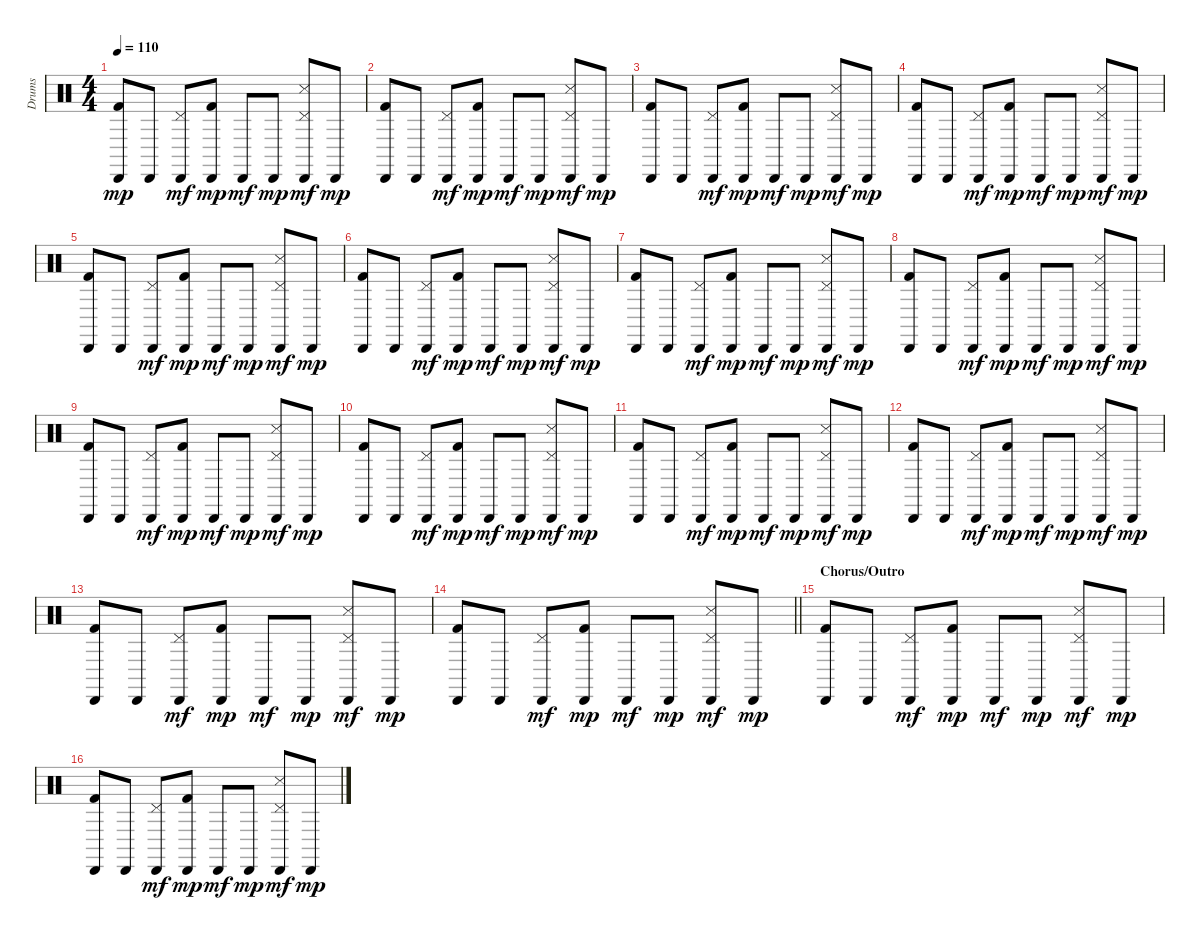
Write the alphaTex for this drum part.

\track ("Drums" "Drums") {instrument percussion}
\staff {score}
\articulation defaults
\ts (4 4)
\tempo 110
\clef neutral
\ks c
("Cabasa (hit)" "Kick (hit) 2").8{dy mp} "Cabasa (hit)".8 ("Cabasa (hit)" "Pedal Hi-Hat (hit)").8{dy mf} ("Cabasa (hit)" "Kick (hit) 2").8{dy mp} "Cabasa (hit)".8{dy mf} "Cabasa (hit)".8{dy mp} ("Cabasa (hit)" "Pedal Hi-Hat (hit)" "Snare (side stick) 3").8{dy mf} "Cabasa (hit)".8{dy mp} |
("Cabasa (hit)" "Kick (hit) 2").8 "Cabasa (hit)".8 ("Cabasa (hit)" "Pedal Hi-Hat (hit)").8{dy mf} ("Cabasa (hit)" "Kick (hit) 2").8{dy mp} "Cabasa (hit)".8{dy mf} "Cabasa (hit)".8{dy mp} ("Cabasa (hit)" "Pedal Hi-Hat (hit)" "Snare (side stick) 3").8{dy mf} "Cabasa (hit)".8{dy mp} |
("Cabasa (hit)" "Kick (hit) 2").8 "Cabasa (hit)".8 ("Cabasa (hit)" "Pedal Hi-Hat (hit)").8{dy mf} ("Cabasa (hit)" "Kick (hit) 2").8{dy mp} "Cabasa (hit)".8{dy mf} "Cabasa (hit)".8{dy mp} ("Cabasa (hit)" "Pedal Hi-Hat (hit)" "Snare (side stick) 3").8{dy mf} "Cabasa (hit)".8{dy mp} |
("Cabasa (hit)" "Kick (hit) 2").8 "Cabasa (hit)".8 ("Cabasa (hit)" "Pedal Hi-Hat (hit)").8{dy mf} ("Cabasa (hit)" "Kick (hit) 2").8{dy mp} "Cabasa (hit)".8{dy mf} "Cabasa (hit)".8{dy mp} ("Cabasa (hit)" "Pedal Hi-Hat (hit)" "Snare (side stick) 3").8{dy mf} "Cabasa (hit)".8{dy mp} |
("Cabasa (hit)" "Kick (hit) 2").8 "Cabasa (hit)".8 ("Cabasa (hit)" "Pedal Hi-Hat (hit)").8{dy mf} ("Cabasa (hit)" "Kick (hit) 2").8{dy mp} "Cabasa (hit)".8{dy mf} "Cabasa (hit)".8{dy mp} ("Cabasa (hit)" "Pedal Hi-Hat (hit)" "Snare (side stick) 3").8{dy mf} "Cabasa (hit)".8{dy mp} |
("Cabasa (hit)" "Kick (hit) 2").8 "Cabasa (hit)".8 ("Cabasa (hit)" "Pedal Hi-Hat (hit)").8{dy mf} ("Cabasa (hit)" "Kick (hit) 2").8{dy mp} "Cabasa (hit)".8{dy mf} "Cabasa (hit)".8{dy mp} ("Cabasa (hit)" "Pedal Hi-Hat (hit)" "Snare (side stick) 3").8{dy mf} "Cabasa (hit)".8{dy mp} |
("Cabasa (hit)" "Kick (hit) 2").8 "Cabasa (hit)".8 ("Cabasa (hit)" "Pedal Hi-Hat (hit)").8{dy mf} ("Cabasa (hit)" "Kick (hit) 2").8{dy mp} "Cabasa (hit)".8{dy mf} "Cabasa (hit)".8{dy mp} ("Cabasa (hit)" "Pedal Hi-Hat (hit)" "Snare (side stick) 3").8{dy mf} "Cabasa (hit)".8{dy mp} |
("Cabasa (hit)" "Kick (hit) 2").8 "Cabasa (hit)".8 ("Cabasa (hit)" "Pedal Hi-Hat (hit)").8{dy mf} ("Cabasa (hit)" "Kick (hit) 2").8{dy mp} "Cabasa (hit)".8{dy mf} "Cabasa (hit)".8{dy mp} ("Cabasa (hit)" "Pedal Hi-Hat (hit)" "Snare (side stick) 3").8{dy mf} "Cabasa (hit)".8{dy mp} |
("Cabasa (hit)" "Kick (hit) 2").8 "Cabasa (hit)".8 ("Cabasa (hit)" "Pedal Hi-Hat (hit)").8{dy mf} ("Cabasa (hit)" "Kick (hit) 2").8{dy mp} "Cabasa (hit)".8{dy mf} "Cabasa (hit)".8{dy mp} ("Cabasa (hit)" "Pedal Hi-Hat (hit)" "Snare (side stick) 3").8{dy mf} "Cabasa (hit)".8{dy mp} |
("Cabasa (hit)" "Kick (hit) 2").8 "Cabasa (hit)".8 ("Cabasa (hit)" "Pedal Hi-Hat (hit)").8{dy mf} ("Cabasa (hit)" "Kick (hit) 2").8{dy mp} "Cabasa (hit)".8{dy mf} "Cabasa (hit)".8{dy mp} ("Cabasa (hit)" "Pedal Hi-Hat (hit)" "Snare (side stick) 3").8{dy mf} "Cabasa (hit)".8{dy mp} |
("Cabasa (hit)" "Kick (hit) 2").8 "Cabasa (hit)".8 ("Cabasa (hit)" "Pedal Hi-Hat (hit)").8{dy mf} ("Cabasa (hit)" "Kick (hit) 2").8{dy mp} "Cabasa (hit)".8{dy mf} "Cabasa (hit)".8{dy mp} ("Cabasa (hit)" "Pedal Hi-Hat (hit)" "Snare (side stick) 3").8{dy mf} "Cabasa (hit)".8{dy mp} |
("Cabasa (hit)" "Kick (hit) 2").8 "Cabasa (hit)".8 ("Cabasa (hit)" "Pedal Hi-Hat (hit)").8{dy mf} ("Cabasa (hit)" "Kick (hit) 2").8{dy mp} "Cabasa (hit)".8{dy mf} "Cabasa (hit)".8{dy mp} ("Cabasa (hit)" "Pedal Hi-Hat (hit)" "Snare (side stick) 3").8{dy mf} "Cabasa (hit)".8{dy mp} |
("Cabasa (hit)" "Kick (hit) 2").8 "Cabasa (hit)".8 ("Cabasa (hit)" "Pedal Hi-Hat (hit)").8{dy mf} ("Cabasa (hit)" "Kick (hit) 2").8{dy mp} "Cabasa (hit)".8{dy mf} "Cabasa (hit)".8{dy mp} ("Cabasa (hit)" "Pedal Hi-Hat (hit)" "Snare (side stick) 3").8{dy mf} "Cabasa (hit)".8{dy mp} |
\barLineRight lightlight
("Cabasa (hit)" "Kick (hit) 2").8 "Cabasa (hit)".8 ("Cabasa (hit)" "Pedal Hi-Hat (hit)").8{dy mf} ("Cabasa (hit)" "Kick (hit) 2").8{dy mp} "Cabasa (hit)".8{dy mf} "Cabasa (hit)".8{dy mp} ("Cabasa (hit)" "Pedal Hi-Hat (hit)" "Snare (side stick) 3").8{dy mf} "Cabasa (hit)".8{dy mp} |
\section ("" "Chorus/Outro")
("Cabasa (hit)" "Kick (hit) 2").8 "Cabasa (hit)".8 ("Cabasa (hit)" "Pedal Hi-Hat (hit)").8{dy mf} ("Cabasa (hit)" "Kick (hit) 2").8{dy mp} "Cabasa (hit)".8{dy mf} "Cabasa (hit)".8{dy mp} ("Cabasa (hit)" "Pedal Hi-Hat (hit)" "Snare (side stick) 3").8{dy mf} "Cabasa (hit)".8{dy mp} |
("Cabasa (hit)" "Kick (hit) 2").8 "Cabasa (hit)".8 ("Cabasa (hit)" "Pedal Hi-Hat (hit)").8{dy mf} ("Cabasa (hit)" "Kick (hit) 2").8{dy mp} "Cabasa (hit)".8{dy mf} "Cabasa (hit)".8{dy mp} ("Cabasa (hit)" "Pedal Hi-Hat (hit)" "Snare (side stick) 3").8{dy mf} "Cabasa (hit)".8{dy mp}
